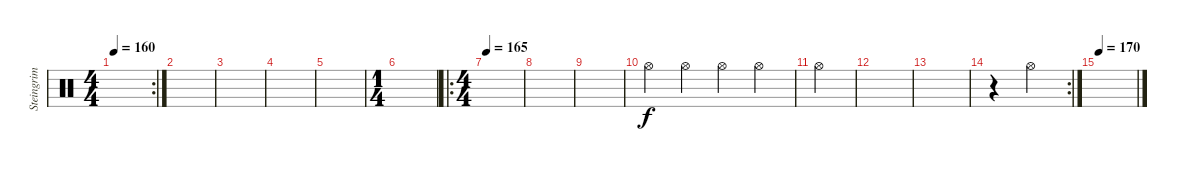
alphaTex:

\track ("Steingrim" "Steingrim") {instrument percussion}
\staff {score}
\articulation defaults
\rc 2
\ts (4 4)
\tempo 160
\clef neutral
\ks c
|
|
|
|
|
\ts (1 4)
|
\ro
\ts (4 4)
\tempo 165
|
|
|
"Hi-Hat (open)".4 "Hi-Hat (open)".4 "Hi-Hat (open)".4 "Hi-Hat (open)".4 |
"Hi-Hat (open)".4 |
|
|
\rc 2
r.4 "Hi-Hat (open)".4 |
\tempo 170
